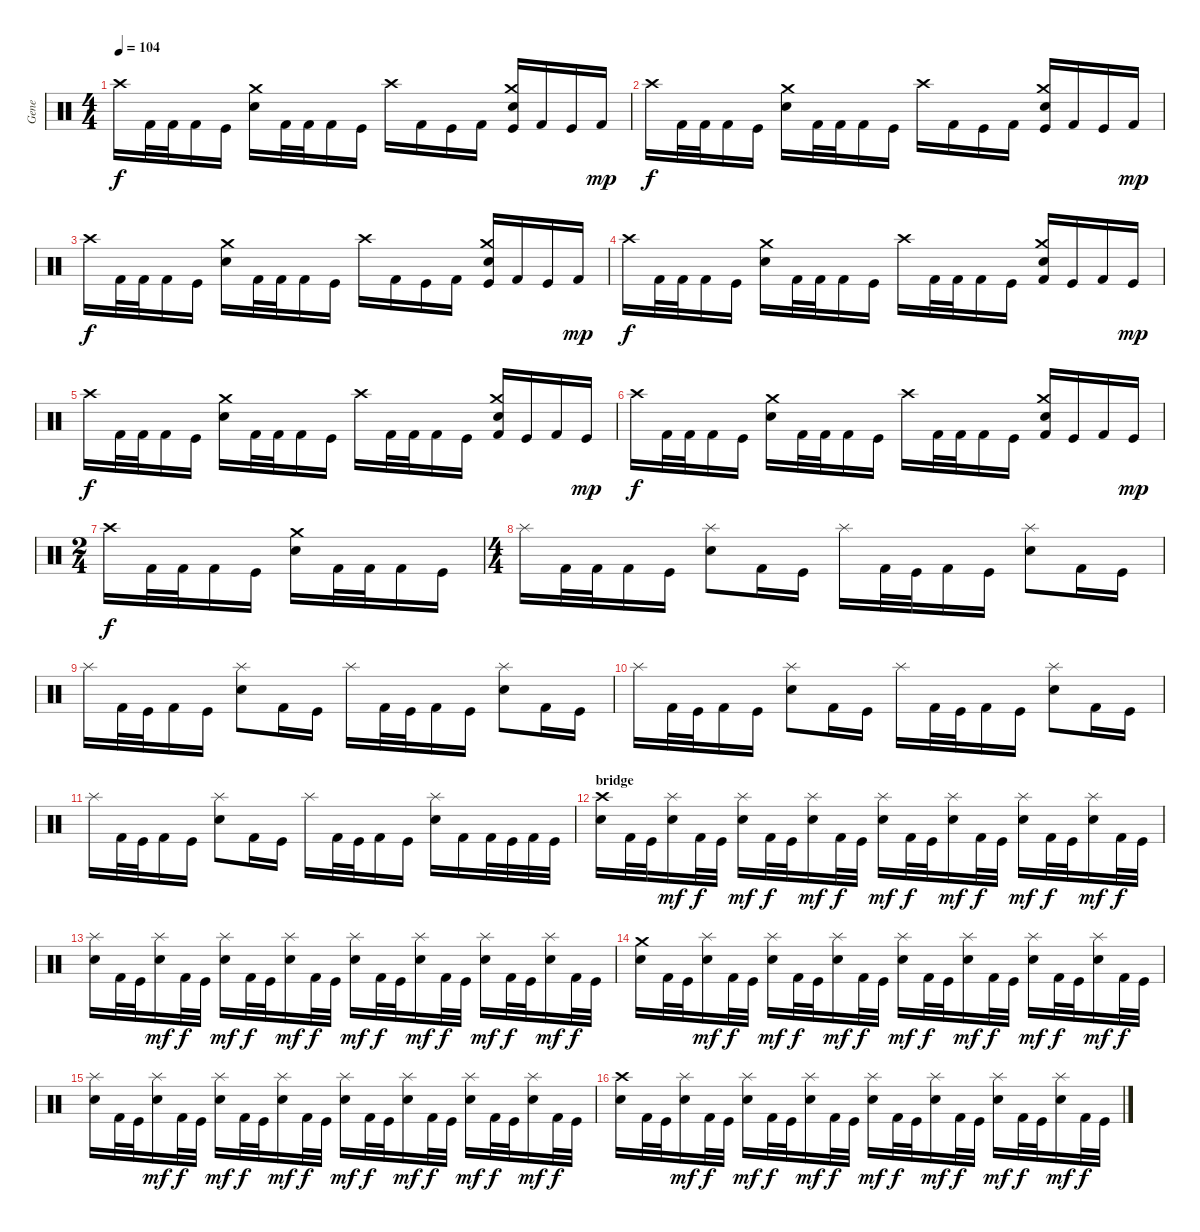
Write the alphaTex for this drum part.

\track ("Gene" "Gene") {instrument percussion}
\staff {score}
\articulation defaults
\ts (4 4)
\tempo 104
\clef neutral
\ks c "Crash high (hit)".16{dy f} "Kick (hit) 2".32 "Kick (hit) 2".32 "Kick (hit) 2".16 "Kick (hit)".16
("Crash medium (hit)" "Snare (hit) 2").16 "Kick (hit) 2".32 "Kick (hit) 2".32 "Kick (hit) 2".16 "Kick (hit)".16 "Crash high (hit)".16 "Kick (hit) 2".16 "Kick (hit)".16 "Kick (hit) 2".16 ("Crash medium (hit)" "Snare (hit) 2" "Kick (hit)").16 "Kick (hit) 2".16 "Kick (hit)".16 "Kick (hit) 2".16{dy mp} |
"Crash high (hit)".16{dy f} "Kick (hit) 2".32 "Kick (hit) 2".32 "Kick (hit) 2".16 "Kick (hit)".16 ("Crash medium (hit)" "Snare (hit) 2").16 "Kick (hit) 2".32 "Kick (hit) 2".32 "Kick (hit) 2".16 "Kick (hit)".16 "Crash high (hit)".16 "Kick (hit) 2".16 "Kick (hit)".16 "Kick (hit) 2".16 ("Crash medium (hit)" "Snare (hit) 2" "Kick (hit)").16 "Kick (hit) 2".16 "Kick (hit)".16 "Kick (hit) 2".16{dy mp} |
"Crash high (hit)".16{dy f} "Kick (hit) 2".32 "Kick (hit) 2".32 "Kick (hit) 2".16 "Kick (hit)".16 ("Crash medium (hit)" "Snare (hit) 2").16 "Kick (hit) 2".32 "Kick (hit) 2".32 "Kick (hit) 2".16 "Kick (hit)".16 "Crash high (hit)".16 "Kick (hit) 2".16 "Kick (hit)".16 "Kick (hit) 2".16 ("Crash medium (hit)" "Snare (hit) 2" "Kick (hit)").16 "Kick (hit) 2".16 "Kick (hit)".16 "Kick (hit) 2".16{dy mp} |
"Crash high (hit)".16{dy f} "Kick (hit) 2".32 "Kick (hit) 2".32 "Kick (hit) 2".16 "Kick (hit)".16 ("Crash medium (hit)" "Snare (hit) 2").16 "Kick (hit) 2".32 "Kick (hit) 2".32 "Kick (hit) 2".16 "Kick (hit)".16 "Crash high (hit)".16 "Kick (hit) 2".32 "Kick (hit) 2".32 "Kick (hit) 2".16 "Kick (hit)".16 ("Crash medium (hit)" "Snare (hit) 2" "Kick (hit) 2").16 "Kick (hit)".16 "Kick (hit) 2".16 "Kick (hit)".16{dy mp} |
"Crash high (hit)".16{dy f} "Kick (hit) 2".32 "Kick (hit) 2".32 "Kick (hit) 2".16 "Kick (hit)".16 ("Crash medium (hit)" "Snare (hit) 2").16 "Kick (hit) 2".32 "Kick (hit) 2".32 "Kick (hit) 2".16 "Kick (hit)".16 "Crash high (hit)".16 "Kick (hit) 2".32 "Kick (hit) 2".32 "Kick (hit) 2".16 "Kick (hit)".16 ("Crash medium (hit)" "Snare (hit) 2" "Kick (hit) 2").16 "Kick (hit)".16 "Kick (hit) 2".16 "Kick (hit)".16{dy mp} |
"Crash high (hit)".16{dy f} "Kick (hit) 2".32 "Kick (hit) 2".32 "Kick (hit) 2".16 "Kick (hit)".16 ("Crash medium (hit)" "Snare (hit) 2").16 "Kick (hit) 2".32 "Kick (hit) 2".32 "Kick (hit) 2".16 "Kick (hit)".16 "Crash high (hit)".16 "Kick (hit) 2".32 "Kick (hit) 2".32 "Kick (hit) 2".16 "Kick (hit)".16 ("Crash medium (hit)" "Snare (hit) 2" "Kick (hit) 2").16 "Kick (hit)".16 "Kick (hit) 2".16 "Kick (hit)".16{dy mp} |
\ts (2 4)
"Crash high (hit)".16{dy f} "Kick (hit) 2".32 "Kick (hit) 2".32 "Kick (hit) 2".16 "Kick (hit)".16 ("Crash medium (hit)" "Snare (hit) 2").16 "Kick (hit) 2".32 "Kick (hit) 2".32 "Kick (hit) 2".16 "Kick (hit)".16 |
\ts (4 4)
"Splash (hit)".16 "Kick (hit) 2".32 "Kick (hit) 2".32 "Kick (hit) 2".16 "Kick (hit)".16 ("Splash (hit)" "Snare (hit) 2").8 "Kick (hit) 2".16 "Kick (hit)".16 "Splash (hit)".16 "Kick (hit) 2".32 "Kick (hit)".32 "Kick (hit) 2".16 "Kick (hit)".16 ("Splash (hit)" "Snare (hit) 2").8 "Kick (hit) 2".16 "Kick (hit)".16 |
"Splash (hit)".16 "Kick (hit) 2".32 "Kick (hit)".32 "Kick (hit) 2".16 "Kick (hit)".16 ("Splash (hit)" "Snare (hit) 2").8 "Kick (hit) 2".16 "Kick (hit)".16 "Splash (hit)".16 "Kick (hit) 2".32 "Kick (hit)".32 "Kick (hit) 2".16 "Kick (hit)".16 ("Splash (hit)" "Snare (hit) 2").8 "Kick (hit) 2".16 "Kick (hit)".16 |
"Splash (hit)".16 "Kick (hit) 2".32 "Kick (hit)".32 "Kick (hit) 2".16 "Kick (hit)".16 ("Splash (hit)" "Snare (hit) 2").8 "Kick (hit) 2".16 "Kick (hit)".16 "Splash (hit)".16 "Kick (hit) 2".32 "Kick (hit)".32 "Kick (hit) 2".16 "Kick (hit)".16 ("Splash (hit)" "Snare (hit) 2").8 "Kick (hit) 2".16 "Kick (hit)".16 |
"Splash (hit)".16 "Kick (hit) 2".32 "Kick (hit)".32 "Kick (hit) 2".16 "Kick (hit)".16 ("Splash (hit)" "Snare (hit) 2").8 "Kick (hit) 2".16 "Kick (hit)".16 "Splash (hit)".16 "Kick (hit) 2".32 "Kick (hit)".32 "Kick (hit) 2".16 "Kick (hit)".16 ("Splash (hit)" "Snare (hit) 2").16 "Kick (hit) 2".16 "Kick (hit) 2".32 "Kick (hit)".32 "Kick (hit) 2".32 "Kick (hit)".32 |
\section ("" "bridge")
("Crash high (hit)" "Snare (hit) 2").16 "Kick (hit) 2".32 "Kick (hit)".32 ("Splash (hit)" "Snare (hit) 2").16{dy mf} "Kick (hit) 2".32{dy f} "Kick (hit)".32 ("Splash (hit)" "Snare (hit) 2").16{dy mf} "Kick (hit) 2".32{dy f} "Kick (hit)".32 ("Splash (hit)" "Snare (hit) 2").16{dy mf} "Kick (hit) 2".32{dy f} "Kick (hit)".32 ("Splash (hit)" "Snare (hit) 2").16{dy mf} "Kick (hit) 2".32{dy f} "Kick (hit)".32 ("Splash (hit)" "Snare (hit) 2").16{dy mf} "Kick (hit) 2".32{dy f} "Kick (hit)".32 ("Splash (hit)" "Snare (hit) 2").16{dy mf} "Kick (hit) 2".32{dy f} "Kick (hit)".32 ("Splash (hit)" "Snare (hit) 2").16{dy mf} "Kick (hit) 2".32{dy f} "Kick (hit)".32 |
("Splash (hit)" "Snare (hit) 2").16 "Kick (hit) 2".32 "Kick (hit)".32 ("Splash (hit)" "Snare (hit) 2").16{dy mf} "Kick (hit) 2".32{dy f} "Kick (hit)".32 ("Splash (hit)" "Snare (hit) 2").16{dy mf} "Kick (hit) 2".32{dy f} "Kick (hit)".32 ("Splash (hit)" "Snare (hit) 2").16{dy mf} "Kick (hit) 2".32{dy f} "Kick (hit)".32 ("Splash (hit)" "Snare (hit) 2").16{dy mf} "Kick (hit) 2".32{dy f} "Kick (hit)".32 ("Splash (hit)" "Snare (hit) 2").16{dy mf} "Kick (hit) 2".32{dy f} "Kick (hit)".32 ("Splash (hit)" "Snare (hit) 2").16{dy mf} "Kick (hit) 2".32{dy f} "Kick (hit)".32 ("Splash (hit)" "Snare (hit) 2").16{dy mf} "Kick (hit) 2".32{dy f} "Kick (hit)".32 |
("Crash medium (hit)" "Snare (hit) 2").16 "Kick (hit) 2".32 "Kick (hit)".32 ("Splash (hit)" "Snare (hit) 2").16{dy mf} "Kick (hit) 2".32{dy f} "Kick (hit)".32 ("Splash (hit)" "Snare (hit) 2").16{dy mf} "Kick (hit) 2".32{dy f} "Kick (hit)".32 ("Splash (hit)" "Snare (hit) 2").16{dy mf} "Kick (hit) 2".32{dy f} "Kick (hit)".32 ("Splash (hit)" "Snare (hit) 2").16{dy mf} "Kick (hit) 2".32{dy f} "Kick (hit)".32 ("Splash (hit)" "Snare (hit) 2").16{dy mf} "Kick (hit) 2".32{dy f} "Kick (hit)".32 ("Splash (hit)" "Snare (hit) 2").16{dy mf} "Kick (hit) 2".32{dy f} "Kick (hit)".32 ("Splash (hit)" "Snare (hit) 2").16{dy mf} "Kick (hit) 2".32{dy f} "Kick (hit)".32 |
("Splash (hit)" "Snare (hit) 2").16 "Kick (hit) 2".32 "Kick (hit)".32 ("Splash (hit)" "Snare (hit) 2").16{dy mf} "Kick (hit) 2".32{dy f} "Kick (hit)".32 ("Splash (hit)" "Snare (hit) 2").16{dy mf} "Kick (hit) 2".32{dy f} "Kick (hit)".32 ("Splash (hit)" "Snare (hit) 2").16{dy mf} "Kick (hit) 2".32{dy f} "Kick (hit)".32 ("Splash (hit)" "Snare (hit) 2").16{dy mf} "Kick (hit) 2".32{dy f} "Kick (hit)".32 ("Splash (hit)" "Snare (hit) 2").16{dy mf} "Kick (hit) 2".32{dy f} "Kick (hit)".32 ("Splash (hit)" "Snare (hit) 2").16{dy mf} "Kick (hit) 2".32{dy f} "Kick (hit)".32 ("Splash (hit)" "Snare (hit) 2").16{dy mf} "Kick (hit) 2".32{dy f} "Kick (hit)".32 |
("Crash high (hit)" "Snare (hit) 2").16 "Kick (hit) 2".32 "Kick (hit)".32 ("Splash (hit)" "Snare (hit) 2").16{dy mf} "Kick (hit) 2".32{dy f} "Kick (hit)".32 ("Splash (hit)" "Snare (hit) 2").16{dy mf} "Kick (hit) 2".32{dy f} "Kick (hit)".32 ("Splash (hit)" "Snare (hit) 2").16{dy mf} "Kick (hit) 2".32{dy f} "Kick (hit)".32 ("Splash (hit)" "Snare (hit) 2").16{dy mf} "Kick (hit) 2".32{dy f} "Kick (hit)".32 ("Splash (hit)" "Snare (hit) 2").16{dy mf} "Kick (hit) 2".32{dy f} "Kick (hit)".32 ("Splash (hit)" "Snare (hit) 2").16{dy mf} "Kick (hit) 2".32{dy f} "Kick (hit)".32 ("Splash (hit)" "Snare (hit) 2").16{dy mf} "Kick (hit) 2".32{dy f} "Kick (hit)".32
